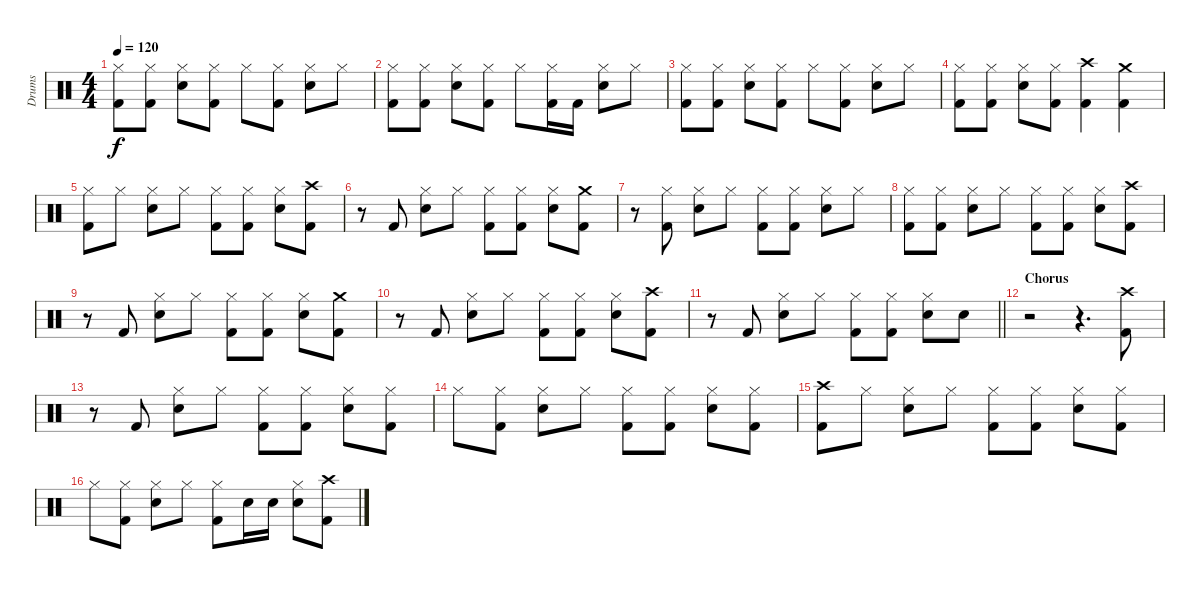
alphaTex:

\track ("Drums" "Drums") {instrument percussion}
\staff {score}
\articulation defaults
\ts (4 4)
\tempo 120
\clef neutral
\ks c
("Hi-Hat (closed)" "Kick (hit) 2").8{dy f} ("Hi-Hat (closed)" "Kick (hit) 2").8 ("Hi-Hat (closed)" "Snare (hit) 2").8 ("Hi-Hat (closed)" "Kick (hit) 2").8 "Hi-Hat (closed)".8 ("Hi-Hat (closed)" "Kick (hit) 2").8 ("Hi-Hat (closed)" "Snare (hit) 2").8 "Hi-Hat (closed)".8 |
("Hi-Hat (closed)" "Kick (hit) 2").8 ("Hi-Hat (closed)" "Kick (hit) 2").8 ("Hi-Hat (closed)" "Snare (hit) 2").8 ("Hi-Hat (closed)" "Kick (hit) 2").8 "Hi-Hat (closed)".8 ("Hi-Hat (closed)" "Kick (hit) 2").16 "Kick (hit) 2".16 ("Hi-Hat (closed)" "Snare (hit) 2").8 "Hi-Hat (closed)".8 |
("Hi-Hat (closed)" "Kick (hit) 2").8 ("Hi-Hat (closed)" "Kick (hit) 2").8 ("Hi-Hat (closed)" "Snare (hit) 2").8 ("Hi-Hat (closed)" "Kick (hit) 2").8 "Hi-Hat (closed)".8 ("Hi-Hat (closed)" "Kick (hit) 2").8 ("Hi-Hat (closed)" "Snare (hit) 2").8 "Hi-Hat (closed)".8 |
("Hi-Hat (closed)" "Kick (hit) 2").8 ("Hi-Hat (closed)" "Kick (hit) 2").8 ("Hi-Hat (closed)" "Snare (hit) 2").8 ("Hi-Hat (closed)" "Kick (hit) 2").8 ("Crash high (hit)" "Kick (hit) 2").4 ("Crash medium (hit)" "Kick (hit) 2").4 |
("Hi-Hat (closed)" "Kick (hit) 2").8 "Hi-Hat (closed)".8 ("Hi-Hat (closed)" "Snare (hit) 2").8 "Hi-Hat (closed)".8 ("Hi-Hat (closed)" "Kick (hit) 2").8 ("Hi-Hat (closed)" "Kick (hit) 2").8 ("Hi-Hat (closed)" "Snare (hit) 2").8 ("Crash high (hit)" "Kick (hit) 2").8 |
r.8 "Kick (hit) 2".8 ("Hi-Hat (closed)" "Snare (hit) 2").8 "Hi-Hat (closed)".8 ("Hi-Hat (closed)" "Kick (hit) 2").8 ("Hi-Hat (closed)" "Kick (hit) 2").8 ("Hi-Hat (closed)" "Snare (hit) 2").8 ("Crash medium (hit)" "Kick (hit) 2").8 |
r.8 ("Hi-Hat (closed)" "Kick (hit) 2").8 ("Hi-Hat (closed)" "Snare (hit) 2").8 "Hi-Hat (closed)".8 ("Hi-Hat (closed)" "Kick (hit) 2").8 ("Hi-Hat (closed)" "Kick (hit) 2").8 ("Hi-Hat (closed)" "Snare (hit) 2").8 "Hi-Hat (closed)".8 |
("Hi-Hat (closed)" "Kick (hit) 2").8 ("Hi-Hat (closed)" "Kick (hit) 2").8 ("Hi-Hat (closed)" "Snare (hit) 2").8 "Hi-Hat (closed)".8 ("Hi-Hat (closed)" "Kick (hit) 2").8 ("Hi-Hat (closed)" "Kick (hit) 2").8 ("Hi-Hat (closed)" "Snare (hit) 2").8 ("Crash high (hit)" "Kick (hit) 2").8 |
r.8 "Kick (hit) 2".8 ("Hi-Hat (closed)" "Snare (hit) 2").8 "Hi-Hat (closed)".8 ("Hi-Hat (closed)" "Kick (hit) 2").8 ("Hi-Hat (closed)" "Kick (hit) 2").8 ("Hi-Hat (closed)" "Snare (hit) 2").8 ("Crash medium (hit)" "Kick (hit) 2").8 |
r.8 "Kick (hit) 2".8 ("Hi-Hat (closed)" "Snare (hit) 2").8 "Hi-Hat (closed)".8 ("Hi-Hat (closed)" "Kick (hit) 2").8 ("Hi-Hat (closed)" "Kick (hit) 2").8 ("Hi-Hat (closed)" "Snare (hit) 2").8 ("Crash high (hit)" "Kick (hit) 2").8 |
\barLineRight lightlight
r.8 "Kick (hit) 2".8 ("Hi-Hat (closed)" "Snare (hit) 2").8 "Hi-Hat (closed)".8 ("Hi-Hat (closed)" "Kick (hit) 2").8 ("Hi-Hat (closed)" "Kick (hit) 2").8 ("Hi-Hat (closed)" "Snare (hit) 2").8 "Snare (hit) 2".8 |
\section ("" "Chorus")
r.2 r.4{d} ("Crash high (hit)" "Kick (hit) 2").8 |
r.8 "Kick (hit) 2".8 ("Hi-Hat (closed)" "Snare (hit) 2").8 "Hi-Hat (closed)".8 ("Hi-Hat (closed)" "Kick (hit) 2").8 ("Hi-Hat (closed)" "Kick (hit) 2").8 ("Hi-Hat (closed)" "Snare (hit) 2").8 ("Hi-Hat (closed)" "Kick (hit) 2").8 |
"Hi-Hat (closed)".8 ("Hi-Hat (closed)" "Kick (hit) 2").8 ("Hi-Hat (closed)" "Snare (hit) 2").8 "Hi-Hat (closed)".8 ("Hi-Hat (closed)" "Kick (hit) 2").8 ("Hi-Hat (closed)" "Kick (hit) 2").8 ("Hi-Hat (closed)" "Snare (hit) 2").8 ("Hi-Hat (closed)" "Kick (hit) 2").8 |
("Crash high (hit)" "Kick (hit) 2").8 "Hi-Hat (closed)".8 ("Hi-Hat (closed)" "Snare (hit) 2").8 "Hi-Hat (closed)".8 ("Hi-Hat (closed)" "Kick (hit) 2").8 ("Hi-Hat (closed)" "Kick (hit) 2").8 ("Hi-Hat (closed)" "Snare (hit) 2").8 ("Hi-Hat (closed)" "Kick (hit) 2").8 |
"Hi-Hat (closed)".8 ("Hi-Hat (closed)" "Kick (hit) 2").8 ("Hi-Hat (closed)" "Snare (hit) 2").8 "Hi-Hat (closed)".8 ("Hi-Hat (closed)" "Kick (hit) 2").8 "Snare (hit) 2".16 "Snare (hit) 2".16 ("Hi-Hat (closed)" "Snare (hit) 2").8 ("Crash high (hit)" "Kick (hit) 2").8
